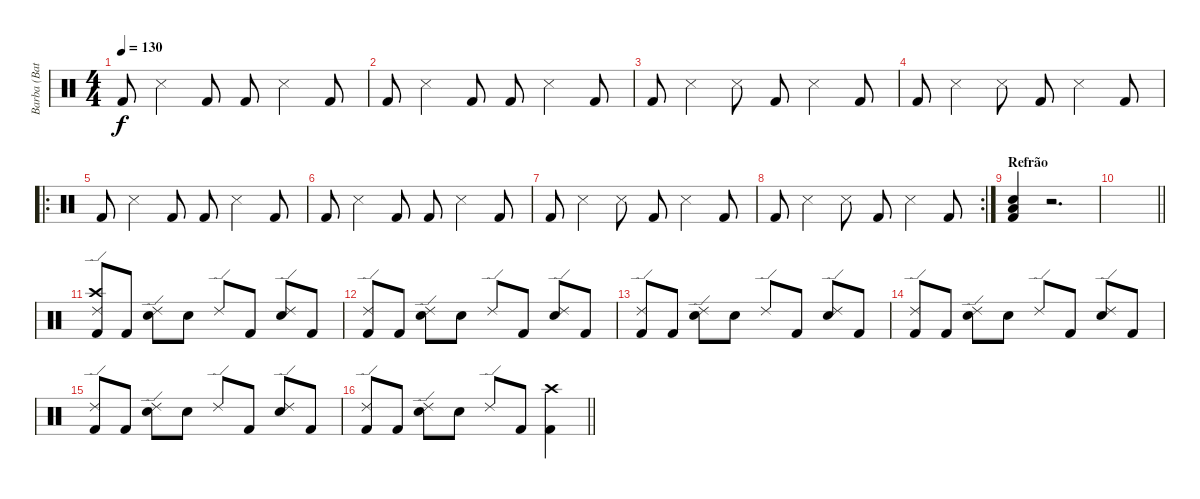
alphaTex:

\track ("Barba (Bateria)" "Barba (Bat") {instrument percussion}
\staff {score}
\articulation defaults
\ts (4 4)
\tempo 130
\clef neutral
\ks c "Kick (hit) 2".8{dy f} "Snare (side stick) 3".4 "Kick (hit) 2".8 "Kick (hit) 2".8 "Snare (side stick) 3".4 "Kick (hit) 2".8
|
"Kick (hit) 2".8 "Snare (side stick) 3".4 "Kick (hit) 2".8 "Kick (hit) 2".8 "Snare (side stick) 3".4 "Kick (hit) 2".8 |
"Kick (hit) 2".8 "Snare (side stick) 3".4 "Snare (side stick) 3".8 "Kick (hit) 2".8 "Snare (side stick) 3".4 "Kick (hit) 2".8 |
"Kick (hit) 2".8 "Snare (side stick) 3".4 "Snare (side stick) 3".8 "Kick (hit) 2".8 "Snare (side stick) 3".4 "Kick (hit) 2".8 |
\ro "Kick (hit) 2".8 "Snare (side stick) 3".4 "Kick (hit) 2".8 "Kick (hit) 2".8 "Snare (side stick) 3".4 "Kick (hit) 2".8
|
"Kick (hit) 2".8 "Snare (side stick) 3".4 "Kick (hit) 2".8 "Kick (hit) 2".8 "Snare (side stick) 3".4 "Kick (hit) 2".8 |
"Kick (hit) 2".8 "Snare (side stick) 3".4 "Snare (side stick) 3".8 "Kick (hit) 2".8 "Snare (side stick) 3".4 "Kick (hit) 2".8 |
\rc 2 "Kick (hit) 2".8 "Snare (side stick) 3".4 "Snare (side stick) 3".8 "Kick (hit) 2".8 "Snare (side stick) 3".4 "Kick (hit) 2".8
|
\section ("" "Refrão")
("Electric Snare (hit)" "Low Tom (hit)" "Kick (hit) 2").4 r.2{d} |
\barLineRight lightlight
|
("Crash high (hit)" "Ride (edge) 2" "Kick (hit) 2").8 "Kick (hit) 2".8 ("Ride (edge) 2" "Electric Snare (hit)").8 "Electric Snare (hit)".8 "Ride (edge) 2".8 "Kick (hit) 2".8 ("Ride (edge) 2" "Electric Snare (hit)").8 "Kick (hit) 2".8 |
("Ride (edge) 2" "Kick (hit) 2").8 "Kick (hit) 2".8 ("Ride (edge) 2" "Electric Snare (hit)").8 "Electric Snare (hit)".8 "Ride (edge) 2".8 "Kick (hit) 2".8 ("Ride (edge) 2" "Electric Snare (hit)").8 "Kick (hit) 2".8 |
("Ride (edge) 2" "Kick (hit) 2").8 "Kick (hit) 2".8 ("Ride (edge) 2" "Electric Snare (hit)").8 "Electric Snare (hit)".8 "Ride (edge) 2".8 "Kick (hit) 2".8 ("Ride (edge) 2" "Electric Snare (hit)").8 "Kick (hit) 2".8 |
("Ride (edge) 2" "Kick (hit) 2").8 "Kick (hit) 2".8 ("Ride (edge) 2" "Electric Snare (hit)").8 "Electric Snare (hit)".8 "Ride (edge) 2".8 "Kick (hit) 2".8 ("Ride (edge) 2" "Electric Snare (hit)").8 "Kick (hit) 2".8 |
("Ride (edge) 2" "Kick (hit) 2").8 "Kick (hit) 2".8 ("Ride (edge) 2" "Electric Snare (hit)").8 "Electric Snare (hit)".8 "Ride (edge) 2".8 "Kick (hit) 2".8 ("Ride (edge) 2" "Electric Snare (hit)").8 "Kick (hit) 2".8 |
\barLineRight lightlight
("Ride (edge) 2" "Kick (hit) 2").8 "Kick (hit) 2".8 ("Ride (edge) 2" "Electric Snare (hit)").8 "Electric Snare (hit)".8 "Ride (edge) 2".8 "Kick (hit) 2".8 ("Crash high (hit)" "Kick (hit) 2").4
